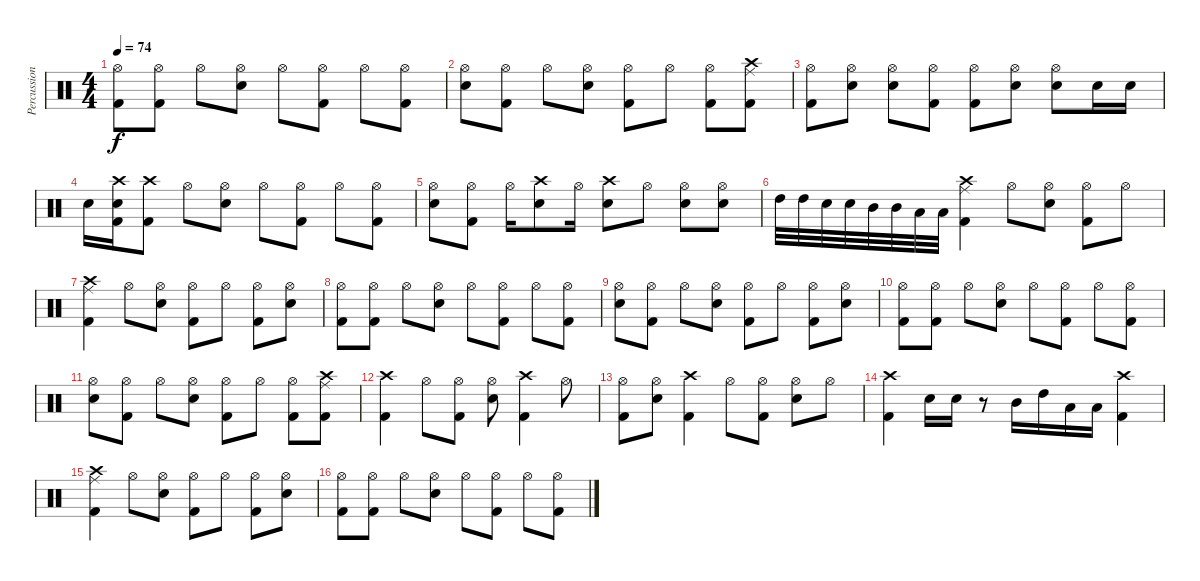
\track ("Percussion" "Percussion") {instrument percussion}
\staff {score}
\articulation defaults
\ts (4 4)
\tempo 74
\clef neutral
\ks c
("Hi-Hat (open)" "Kick (hit) 2").8{dy f} ("Hi-Hat (open)" "Kick (hit) 2").8 "Hi-Hat (open)".8 ("Hi-Hat (open)" "Snare (hit) 2").8 "Hi-Hat (open)".8 ("Hi-Hat (open)" "Kick (hit) 2").8 "Hi-Hat (open)".8 ("Hi-Hat (open)" "Kick (hit) 2").8 |
("Hi-Hat (open)" "Snare (hit) 2").8 ("Hi-Hat (open)" "Kick (hit) 2").8 "Hi-Hat (open)".8 ("Hi-Hat (open)" "Snare (hit) 2").8 ("Hi-Hat (open)" "Kick (hit) 2").8 "Hi-Hat (open)".8 ("Hi-Hat (open)" "Kick (hit) 2").8 ("Crash high (hit)" "Kick (hit) 2" "Ride (middle)").8 |
("Hi-Hat (open)" "Kick (hit) 2").8 ("Hi-Hat (open)" "Snare (hit) 2").8 ("Hi-Hat (open)" "Snare (hit) 2").8 ("Hi-Hat (open)" "Kick (hit) 2").8 ("Hi-Hat (open)" "Kick (hit) 2").8 ("Hi-Hat (open)" "Snare (hit) 2").8 ("Hi-Hat (open)" "Snare (hit) 2").8 "Snare (hit) 2".16 "Snare (hit) 2".16 |
"Snare (hit) 2".16 ("Crash high (hit)" "Kick (hit) 2" "Snare (hit) 2").16 ("Crash high (hit)" "Kick (hit) 2").8 "Hi-Hat (open)".8 ("Hi-Hat (open)" "Snare (hit) 2").8 "Hi-Hat (open)".8 ("Hi-Hat (open)" "Kick (hit) 2").8 "Hi-Hat (open)".8 ("Hi-Hat (open)" "Kick (hit) 2").8 |
("Hi-Hat (open)" "Snare (hit) 2").8 ("Hi-Hat (open)" "Kick (hit) 2").8 "Hi-Hat (open)".16 ("Crash high (hit)" "Snare (hit) 2").8 "Hi-Hat (open)".16 ("Crash high (hit)" "Snare (hit) 2").8 "Hi-Hat (open)".8 ("Hi-Hat (open)" "Snare (hit) 2").8 ("Hi-Hat (open)" "Snare (hit) 2").8 |
"High Tom (hit)".32 "High Tom (hit)".32 "Snare (hit) 2".32 "Snare (hit) 2".32 "Mid Tom (hit)".32 "Mid Tom (hit)".32 "Low Floor Tom (hit)".32 "Low Floor Tom (hit)".32 ("Ride (middle)" "Crash high (hit)" "Kick (hit) 2").4 "Hi-Hat (open)".8 ("Hi-Hat (open)" "Snare (hit) 2").8 ("Hi-Hat (open)" "Kick (hit) 2").8 "Hi-Hat (open)".8 |
("Ride (middle)" "Crash high (hit)" "Kick (hit) 2").4 "Hi-Hat (open)".8 ("Hi-Hat (open)" "Snare (hit) 2").8 ("Hi-Hat (open)" "Kick (hit) 2").8 "Hi-Hat (open)".8 ("Hi-Hat (open)" "Kick (hit) 2").8 ("Hi-Hat (open)" "Snare (hit) 2").8 |
("Hi-Hat (open)" "Kick (hit) 2").8 ("Hi-Hat (open)" "Kick (hit) 2").8 "Hi-Hat (open)".8 ("Hi-Hat (open)" "Snare (hit) 2").8 "Hi-Hat (open)".8 ("Hi-Hat (open)" "Kick (hit) 2").8 "Hi-Hat (open)".8 ("Hi-Hat (open)" "Kick (hit) 2").8 |
("Hi-Hat (open)" "Snare (hit) 2").8 ("Hi-Hat (open)" "Kick (hit) 2").8 "Hi-Hat (open)".8 ("Hi-Hat (open)" "Snare (hit) 2").8 ("Hi-Hat (open)" "Kick (hit) 2").8 "Hi-Hat (open)".8 ("Hi-Hat (open)" "Kick (hit) 2").8 ("Hi-Hat (open)" "Snare (hit) 2").8 |
("Hi-Hat (open)" "Kick (hit) 2").8 ("Hi-Hat (open)" "Kick (hit) 2").8 "Hi-Hat (open)".8 ("Hi-Hat (open)" "Snare (hit) 2").8 "Hi-Hat (open)".8 ("Hi-Hat (open)" "Kick (hit) 2").8 "Hi-Hat (open)".8 ("Hi-Hat (open)" "Kick (hit) 2").8 |
("Hi-Hat (open)" "Snare (hit) 2").8 ("Hi-Hat (open)" "Kick (hit) 2").8 "Hi-Hat (open)".8 ("Hi-Hat (open)" "Snare (hit) 2").8 ("Hi-Hat (open)" "Kick (hit) 2").8 "Hi-Hat (open)".8 ("Hi-Hat (open)" "Kick (hit) 2").8 ("Crash high (hit)" "Kick (hit) 2" "Ride (middle)").8 |
("Crash high (hit)" "Kick (hit) 2").4 "Hi-Hat (open)".8 ("Hi-Hat (open)" "Kick (hit) 2").8 ("Hi-Hat (open)" "Snare (hit) 2").8 ("Crash high (hit)" "Kick (hit) 2").4 "Hi-Hat (open)".8 |
("Hi-Hat (open)" "Kick (hit) 2").8 ("Hi-Hat (open)" "Snare (hit) 2").8 ("Crash high (hit)" "Kick (hit) 2").4 "Hi-Hat (open)".8 ("Hi-Hat (open)" "Kick (hit) 2").8 ("Hi-Hat (open)" "Snare (hit) 2").8 "Hi-Hat (open)".8 |
("Crash high (hit)" "Kick (hit) 2").4 "Snare (hit) 2".16 "Snare (hit) 2".16 r.8 "Mid Tom (hit)".16 "High Tom (hit)".16 "Low Floor Tom (hit)".16 "Low Floor Tom (hit)".16 ("Crash high (hit)" "Kick (hit) 2").4 |
("Ride (middle)" "Crash high (hit)" "Kick (hit) 2").4 "Hi-Hat (open)".8 ("Hi-Hat (open)" "Snare (hit) 2").8 ("Hi-Hat (open)" "Kick (hit) 2").8 "Hi-Hat (open)".8 ("Hi-Hat (open)" "Kick (hit) 2").8 ("Hi-Hat (open)" "Snare (hit) 2").8 |
("Hi-Hat (open)" "Kick (hit) 2").8 ("Hi-Hat (open)" "Kick (hit) 2").8 "Hi-Hat (open)".8 ("Hi-Hat (open)" "Snare (hit) 2").8 "Hi-Hat (open)".8 ("Hi-Hat (open)" "Kick (hit) 2").8 "Hi-Hat (open)".8 ("Hi-Hat (open)" "Kick (hit) 2").8
